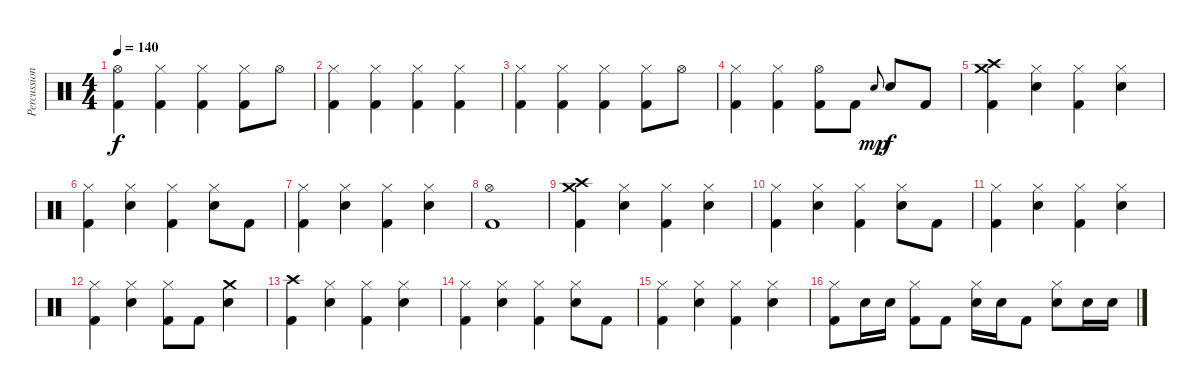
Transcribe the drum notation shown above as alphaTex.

\track ("Percussions" "Percussion") {instrument percussion}
\staff {score}
\articulation defaults
\ts (4 4)
\tempo 140
\clef neutral
\ks c
("Hi-Hat (open)" "Kick (hit) 2").4{dy f} ("Hi-Hat (closed)" "Kick (hit) 2").4 ("Hi-Hat (closed)" "Kick (hit) 2").4 ("Hi-Hat (closed)" "Kick (hit) 2").8 "Hi-Hat (open)".8 |
("Hi-Hat (closed)" "Kick (hit) 2").4 ("Hi-Hat (closed)" "Kick (hit) 2").4 ("Hi-Hat (closed)" "Kick (hit) 2").4 ("Hi-Hat (closed)" "Kick (hit) 2").4 |
("Hi-Hat (closed)" "Kick (hit) 2").4 ("Hi-Hat (closed)" "Kick (hit) 2").4 ("Hi-Hat (closed)" "Kick (hit) 2").4 ("Hi-Hat (closed)" "Kick (hit) 2").8 "Hi-Hat (open)".8 |
("Hi-Hat (closed)" "Kick (hit) 2").4 ("Hi-Hat (closed)" "Kick (hit) 2").4 ("Hi-Hat (open)" "Kick (hit) 2").8 "Kick (hit) 2".8 "Electric Snare (hit)".8{gr onbeat dy mp} "Electric Snare (hit)".8{dy f} "Kick (hit) 2".8 |
("Crash high (hit)" "Crash medium (hit)" "Kick (hit) 2").4 ("Hi-Hat (closed)" "Electric Snare (hit)").4 ("Hi-Hat (closed)" "Kick (hit) 2").4 ("Hi-Hat (closed)" "Electric Snare (hit)").4 |
("Hi-Hat (closed)" "Kick (hit) 2").4 ("Hi-Hat (closed)" "Electric Snare (hit)").4 ("Hi-Hat (closed)" "Kick (hit) 2").4 ("Hi-Hat (closed)" "Electric Snare (hit)").8 "Kick (hit) 2".8 |
("Hi-Hat (closed)" "Kick (hit) 2").4 ("Hi-Hat (closed)" "Electric Snare (hit)").4 ("Hi-Hat (closed)" "Kick (hit) 2").4 ("Hi-Hat (closed)" "Electric Snare (hit)").4 |
("Hi-Hat (open)" "Kick (hit) 2").1 |
("Crash high (hit)" "Crash medium (hit)" "Kick (hit) 2").4 ("Hi-Hat (closed)" "Electric Snare (hit)").4 ("Hi-Hat (closed)" "Kick (hit) 2").4 ("Hi-Hat (closed)" "Electric Snare (hit)").4 |
("Hi-Hat (closed)" "Kick (hit) 2").4 ("Hi-Hat (closed)" "Electric Snare (hit)").4 ("Hi-Hat (closed)" "Kick (hit) 2").4 ("Hi-Hat (closed)" "Electric Snare (hit)").8 "Kick (hit) 2".8 |
("Hi-Hat (closed)" "Kick (hit) 2").4 ("Hi-Hat (closed)" "Electric Snare (hit)").4 ("Hi-Hat (closed)" "Kick (hit) 2").4 ("Hi-Hat (closed)" "Electric Snare (hit)").4 |
("Hi-Hat (closed)" "Kick (hit) 2").4 ("Hi-Hat (closed)" "Electric Snare (hit)").4 ("Hi-Hat (closed)" "Kick (hit) 2").8 "Kick (hit) 2".8 ("Crash medium (hit)" "Electric Snare (hit)").4 |
("Crash high (hit)" "Kick (hit) 2").4 ("Hi-Hat (closed)" "Electric Snare (hit)").4 ("Hi-Hat (closed)" "Kick (hit) 2").4 ("Hi-Hat (closed)" "Electric Snare (hit)").4 |
("Hi-Hat (closed)" "Kick (hit) 2").4 ("Hi-Hat (closed)" "Electric Snare (hit)").4 ("Hi-Hat (closed)" "Kick (hit) 2").4 ("Hi-Hat (closed)" "Electric Snare (hit)").8 "Kick (hit) 2".8 |
("Hi-Hat (closed)" "Kick (hit) 2").4 ("Hi-Hat (closed)" "Electric Snare (hit)").4 ("Hi-Hat (closed)" "Kick (hit) 2").4 ("Hi-Hat (closed)" "Electric Snare (hit)").4 |
("Hi-Hat (closed)" "Kick (hit) 2").8 "Electric Snare (hit)".16 "Electric Snare (hit)".16 ("Hi-Hat (closed)" "Kick (hit) 2").8 "Kick (hit) 2".8 ("Hi-Hat (closed)" "Electric Snare (hit)").16 "Electric Snare (hit)".16 "Kick (hit) 2".8 ("Hi-Hat (closed)" "Electric Snare (hit)").8 "Electric Snare (hit)".16 "Electric Snare (hit)".16
